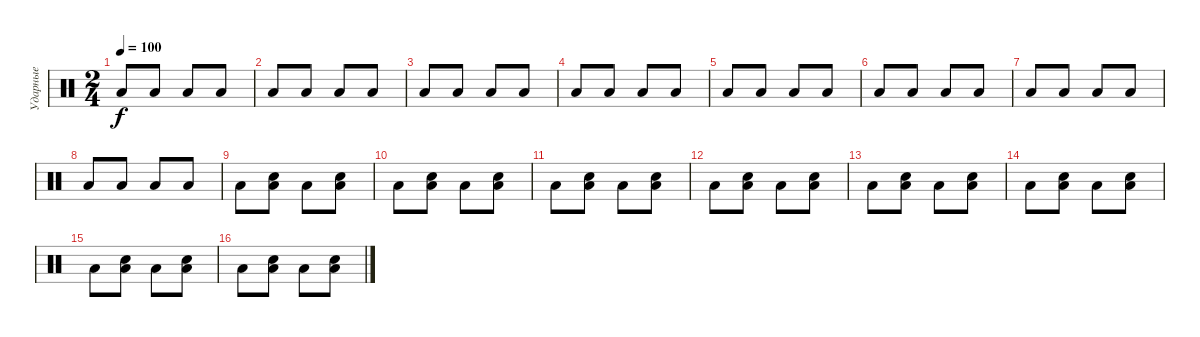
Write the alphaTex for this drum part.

\track ("Ударные" "Ударные") {instrument percussion}
\staff {score}
\articulation defaults
\ts (2 4)
\tempo 100
\clef neutral
\ks c "Low Tom (hit)".8{dy f} "Low Tom (hit)".8 "Low Tom (hit)".8 "Low Tom (hit)".8
|
"Low Tom (hit)".8 "Low Tom (hit)".8 "Low Tom (hit)".8 "Low Tom (hit)".8 |
"Low Tom (hit)".8 "Low Tom (hit)".8 "Low Tom (hit)".8 "Low Tom (hit)".8 |
"Low Tom (hit)".8 "Low Tom (hit)".8 "Low Tom (hit)".8 "Low Tom (hit)".8 |
"Low Tom (hit)".8 "Low Tom (hit)".8 "Low Tom (hit)".8 "Low Tom (hit)".8 |
"Low Tom (hit)".8 "Low Tom (hit)".8 "Low Tom (hit)".8 "Low Tom (hit)".8 |
"Low Tom (hit)".8 "Low Tom (hit)".8 "Low Tom (hit)".8 "Low Tom (hit)".8 |
"Low Tom (hit)".8 "Low Tom (hit)".8 "Low Tom (hit)".8 "Low Tom (hit)".8 |
"Low Tom (hit)".8 ("Electric Snare (hit)" "Low Tom (hit)").8 "Low Tom (hit)".8 ("Electric Snare (hit)" "Low Tom (hit)").8 |
"Low Tom (hit)".8 ("Electric Snare (hit)" "Low Tom (hit)").8 "Low Tom (hit)".8 ("Electric Snare (hit)" "Low Tom (hit)").8 |
"Low Tom (hit)".8 ("Electric Snare (hit)" "Low Tom (hit)").8 "Low Tom (hit)".8 ("Electric Snare (hit)" "Low Tom (hit)").8 |
"Low Tom (hit)".8 ("Electric Snare (hit)" "Low Tom (hit)").8 "Low Tom (hit)".8 ("Electric Snare (hit)" "Low Tom (hit)").8 |
"Low Tom (hit)".8 ("Electric Snare (hit)" "Low Tom (hit)").8 "Low Tom (hit)".8 ("Electric Snare (hit)" "Low Tom (hit)").8 |
"Low Tom (hit)".8 ("Electric Snare (hit)" "Low Tom (hit)").8 "Low Tom (hit)".8 ("Electric Snare (hit)" "Low Tom (hit)").8 |
"Low Tom (hit)".8 ("Electric Snare (hit)" "Low Tom (hit)").8 "Low Tom (hit)".8 ("Electric Snare (hit)" "Low Tom (hit)").8 |
"Low Tom (hit)".8 ("Electric Snare (hit)" "Low Tom (hit)").8 "Low Tom (hit)".8 ("Electric Snare (hit)" "Low Tom (hit)").8
